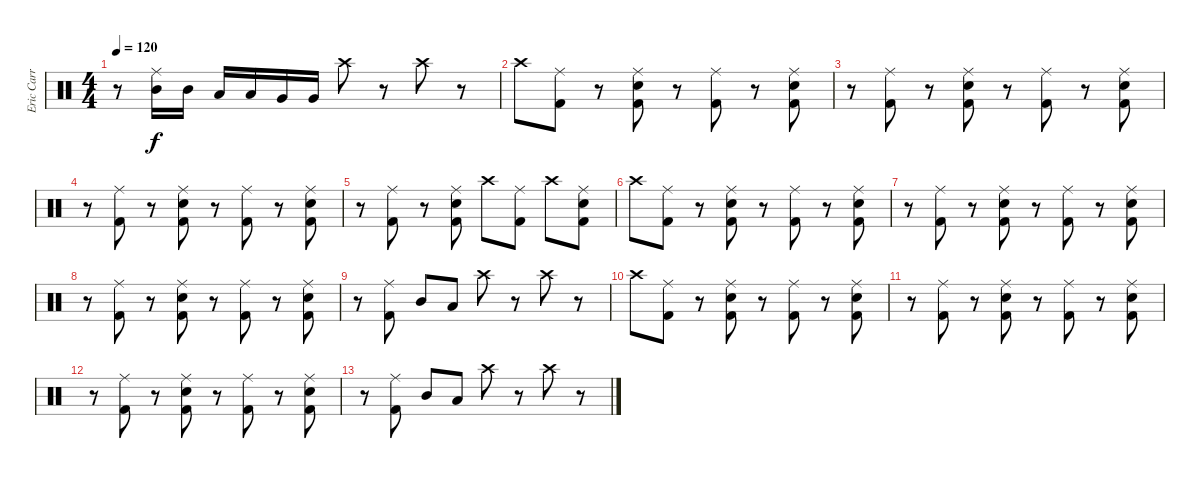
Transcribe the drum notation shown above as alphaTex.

\track ("Eric Carr" "Eric Carr") {instrument percussion}
\staff {score}
\articulation defaults
\ts (4 4)
\tempo 120
\clef neutral
\ks c
r.8{dy f} ("Mid Tom (hit)" "Ride (middle)").16 "Mid Tom (hit)".16 "Low Tom (hit)".16 "Low Tom (hit)".16 "Very Low Tom (hit)".16 "Very Low Tom (hit)".16 "Crash high (hit)".8 r.8 "Crash high (hit)".8 r.8 |
"Crash high (hit)".8 ("Kick (hit) 2" "Ride (middle)").8 r.8 ("Kick (hit) 2" "Ride (middle)" "Snare (hit) 2").8 r.8 ("Kick (hit) 2" "Ride (middle)").8 r.8 ("Kick (hit) 2" "Ride (middle)" "Snare (hit) 2").8 |
r.8 ("Kick (hit) 2" "Ride (middle)").8 r.8 ("Kick (hit) 2" "Ride (middle)" "Snare (hit) 2").8 r.8 ("Kick (hit) 2" "Ride (middle)").8 r.8 ("Kick (hit) 2" "Ride (middle)" "Snare (hit) 2").8 |
r.8 ("Kick (hit) 2" "Ride (middle)").8 r.8 ("Kick (hit) 2" "Ride (middle)" "Snare (hit) 2").8 r.8 ("Kick (hit) 2" "Ride (middle)").8 r.8 ("Kick (hit) 2" "Ride (middle)" "Snare (hit) 2").8 |
r.8 ("Kick (hit) 2" "Ride (middle)").8 r.8 ("Kick (hit) 2" "Ride (middle)" "Snare (hit) 2").8 "Crash high (hit)".8 ("Kick (hit) 2" "Ride (middle)").8 "Crash high (hit)".8 ("Kick (hit) 2" "Ride (middle)" "Snare (hit) 2").8 |
"Crash high (hit)".8 ("Kick (hit) 2" "Ride (middle)").8 r.8 ("Kick (hit) 2" "Ride (middle)" "Snare (hit) 2").8 r.8 ("Kick (hit) 2" "Ride (middle)").8 r.8 ("Kick (hit) 2" "Ride (middle)" "Snare (hit) 2").8 |
r.8 ("Kick (hit) 2" "Ride (middle)").8 r.8 ("Kick (hit) 2" "Ride (middle)" "Snare (hit) 2").8 r.8 ("Kick (hit) 2" "Ride (middle)").8 r.8 ("Kick (hit) 2" "Ride (middle)" "Snare (hit) 2").8 |
r.8 ("Kick (hit) 2" "Ride (middle)").8 r.8 ("Kick (hit) 2" "Ride (middle)" "Snare (hit) 2").8 r.8 ("Kick (hit) 2" "Ride (middle)").8 r.8 ("Kick (hit) 2" "Ride (middle)" "Snare (hit) 2").8 |
r.8 ("Kick (hit) 2" "Ride (middle)").8 "Mid Tom (hit)".8 "Low Tom (hit)".8 "Crash high (hit)".8 r.8 "Crash high (hit)".8 r.8 |
"Crash high (hit)".8 ("Kick (hit) 2" "Ride (middle)").8 r.8 ("Kick (hit) 2" "Ride (middle)" "Snare (hit) 2").8 r.8 ("Kick (hit) 2" "Ride (middle)").8 r.8 ("Kick (hit) 2" "Ride (middle)" "Snare (hit) 2").8 |
r.8 ("Kick (hit) 2" "Ride (middle)").8 r.8 ("Kick (hit) 2" "Ride (middle)" "Snare (hit) 2").8 r.8 ("Kick (hit) 2" "Ride (middle)").8 r.8 ("Kick (hit) 2" "Ride (middle)" "Snare (hit) 2").8 |
r.8 ("Kick (hit) 2" "Ride (middle)").8 r.8 ("Kick (hit) 2" "Ride (middle)" "Snare (hit) 2").8 r.8 ("Kick (hit) 2" "Ride (middle)").8 r.8 ("Kick (hit) 2" "Ride (middle)" "Snare (hit) 2").8 |
r.8 ("Kick (hit) 2" "Ride (middle)").8 "Mid Tom (hit)".8 "Low Tom (hit)".8 "Crash high (hit)".8 r.8 "Crash high (hit)".8 r.8
